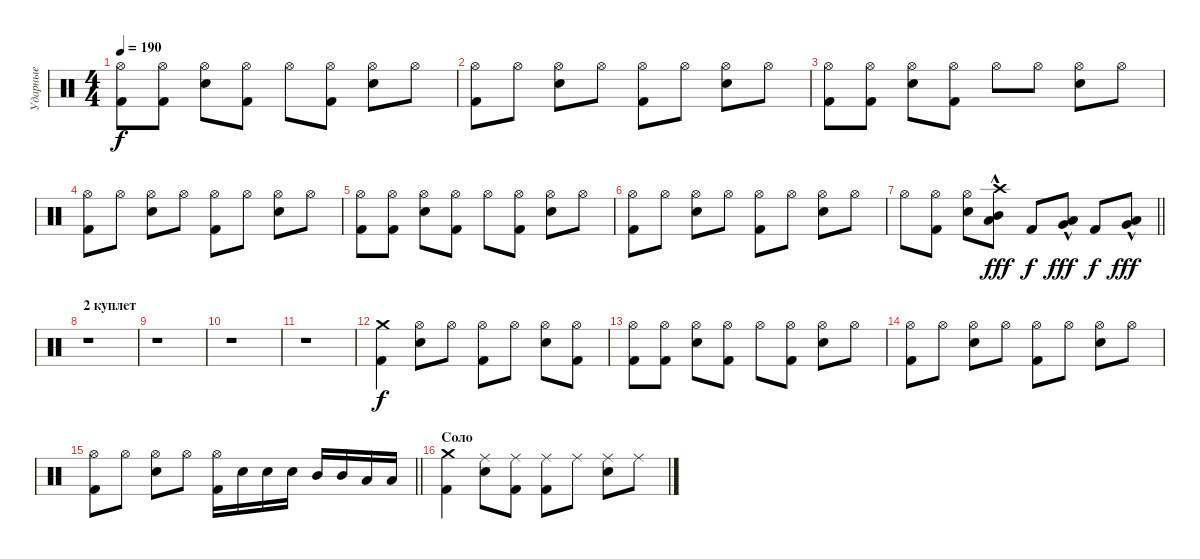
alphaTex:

\track ("Ударные" "Ударные") {instrument percussion}
\staff {score}
\articulation defaults
\ts (4 4)
\tempo 190
\clef neutral
\ks c
("Hi-Hat (open)" "Kick (hit) 2").8{dy f} ("Hi-Hat (open)" "Kick (hit) 2").8 ("Hi-Hat (open)" "Electric Snare (hit)").8 ("Hi-Hat (open)" "Kick (hit) 2").8 "Hi-Hat (open)".8 ("Hi-Hat (open)" "Kick (hit) 2").8 ("Hi-Hat (open)" "Electric Snare (hit)").8 "Hi-Hat (open)".8 |
("Hi-Hat (open)" "Kick (hit) 2").8 "Hi-Hat (open)".8 ("Hi-Hat (open)" "Electric Snare (hit)").8 "Hi-Hat (open)".8 ("Hi-Hat (open)" "Kick (hit) 2").8 "Hi-Hat (open)".8 ("Hi-Hat (open)" "Electric Snare (hit)").8 "Hi-Hat (open)".8 |
("Hi-Hat (open)" "Kick (hit) 2").8 ("Hi-Hat (open)" "Kick (hit) 2").8 ("Hi-Hat (open)" "Electric Snare (hit)").8 ("Hi-Hat (open)" "Kick (hit) 2").8 "Hi-Hat (open)".8 "Hi-Hat (open)".8 ("Hi-Hat (open)" "Electric Snare (hit)").8 "Hi-Hat (open)".8 |
("Hi-Hat (open)" "Kick (hit) 2").8 "Hi-Hat (open)".8 ("Hi-Hat (open)" "Electric Snare (hit)").8 "Hi-Hat (open)".8 ("Hi-Hat (open)" "Kick (hit) 2").8 "Hi-Hat (open)".8 ("Hi-Hat (open)" "Electric Snare (hit)").8 "Hi-Hat (open)".8 |
("Hi-Hat (open)" "Kick (hit) 2").8 ("Hi-Hat (open)" "Kick (hit) 2").8 ("Hi-Hat (open)" "Electric Snare (hit)").8 ("Hi-Hat (open)" "Kick (hit) 2").8 "Hi-Hat (open)".8 ("Hi-Hat (open)" "Kick (hit) 2").8 ("Hi-Hat (open)" "Electric Snare (hit)").8 "Hi-Hat (open)".8 |
("Hi-Hat (open)" "Kick (hit) 2").8 "Hi-Hat (open)".8 ("Hi-Hat (open)" "Electric Snare (hit)").8 "Hi-Hat (open)".8 ("Hi-Hat (open)" "Kick (hit) 2").8 "Hi-Hat (open)".8 ("Hi-Hat (open)" "Electric Snare (hit)").8 "Hi-Hat (open)".8 |
\barLineRight lightlight "Hi-Hat (open)".8
("Hi-Hat (open)" "Kick (hit) 2").8 ("Hi-Hat (open)" "Electric Snare (hit)").8 ("Low Tom (hit)"{hac} "Crash high (hit)" "Mid Tom (hit)"{hac}).8{dy fff} "Kick (hit) 2".8{dy f} ("Very Low Tom (hit)"{hac} "Low Tom (hit)"{hac}).8{dy fff} "Kick (hit) 2".8{dy f} ("Low Floor Tom (hit)"{hac} "Very Low Tom (hit)"{hac}).8{dy fff} |
\section ("" "2 куплет")
r.1 |
r.1 |
r.1 |
r.1 |
("Crash medium (hit)" "Kick (hit) 2").4{dy f} ("Hi-Hat (open)" "Electric Snare (hit)").8 "Hi-Hat (open)".8 ("Hi-Hat (open)" "Kick (hit) 2").8 "Hi-Hat (open)".8 ("Hi-Hat (open)" "Electric Snare (hit)").8 ("Hi-Hat (open)" "Kick (hit) 2").8 |
("Hi-Hat (open)" "Kick (hit) 2").8 ("Hi-Hat (open)" "Kick (hit) 2").8 ("Hi-Hat (open)" "Electric Snare (hit)").8 ("Hi-Hat (open)" "Kick (hit) 2").8 "Hi-Hat (open)".8 ("Hi-Hat (open)" "Kick (hit) 2").8 ("Hi-Hat (open)" "Electric Snare (hit)").8 "Hi-Hat (open)".8 |
("Hi-Hat (open)" "Kick (hit) 2").8 "Hi-Hat (open)".8 ("Hi-Hat (open)" "Electric Snare (hit)").8 "Hi-Hat (open)".8 ("Hi-Hat (open)" "Kick (hit) 2").8 "Hi-Hat (open)".8 ("Hi-Hat (open)" "Electric Snare (hit)").8 "Hi-Hat (open)".8 |
\barLineRight lightlight
("Hi-Hat (open)" "Kick (hit) 2").8 "Hi-Hat (open)".8 ("Hi-Hat (open)" "Electric Snare (hit)").8 "Hi-Hat (open)".8 ("Hi-Hat (open)" "Kick (hit) 2").16 "Electric Snare (hit)".16 "Electric Snare (hit)".16 "Electric Snare (hit)".16 "Mid Tom (hit)".16 "Mid Tom (hit)".16 "Low Tom (hit)".16 "Low Tom (hit)".16 |
\section ("" "Соло")
("Crash medium (hit)" "Kick (hit) 2").4 ("Ride (middle)" "Electric Snare (hit)").8 ("Ride (middle)" "Kick (hit) 2").8 ("Ride (middle)" "Kick (hit) 2").8 "Ride (middle)".8 ("Ride (middle)" "Electric Snare (hit)").8 "Ride (middle)".8
